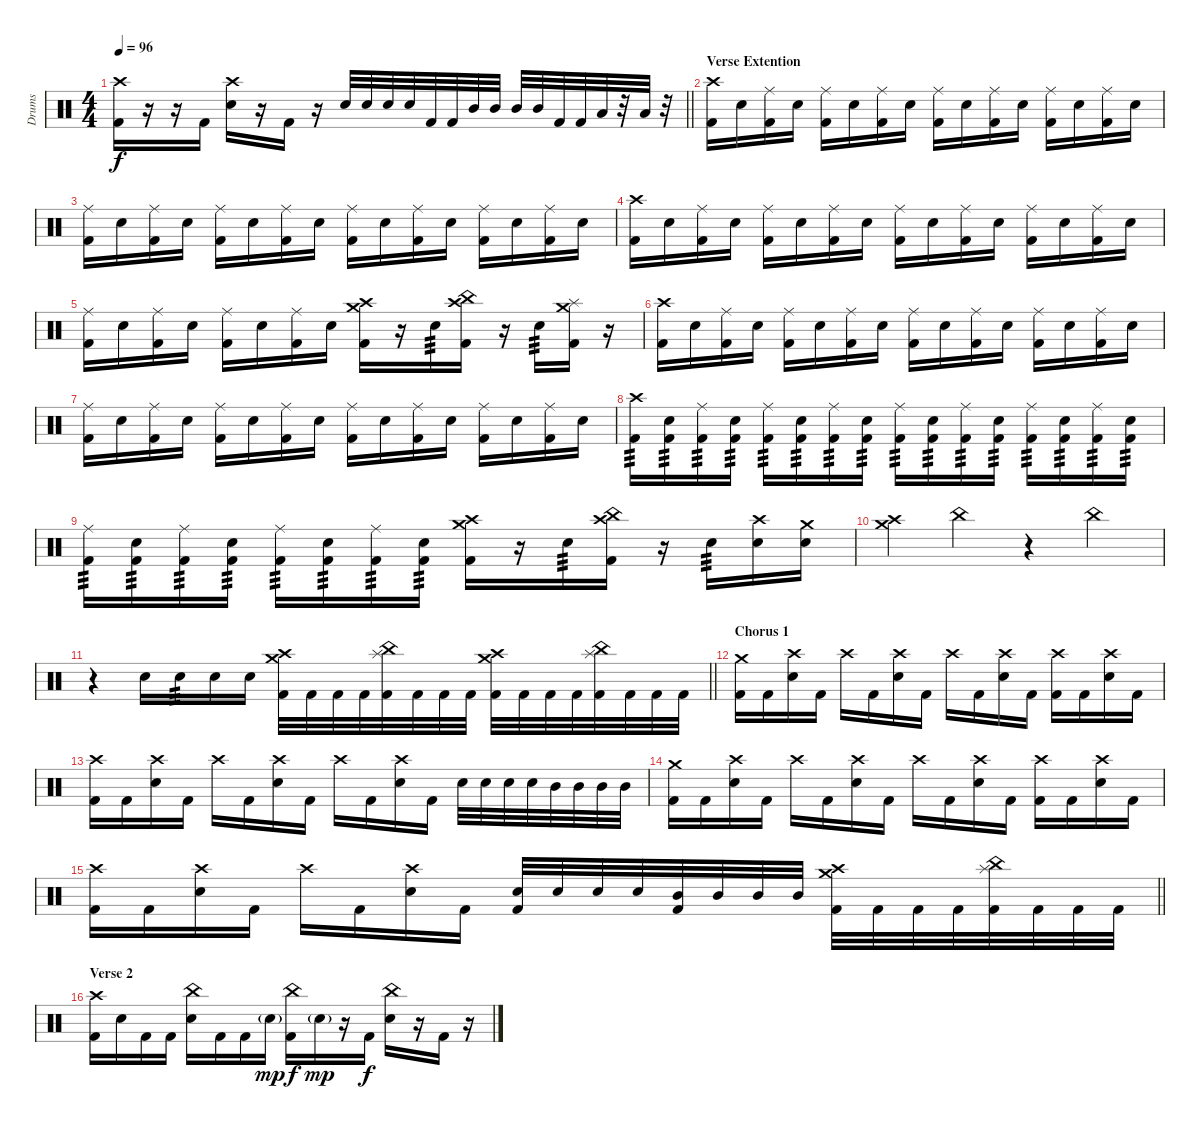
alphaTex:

\track ("Drums" "Drums") {instrument percussion}
\staff {score}
\articulation defaults
\ts (4 4)
\tempo 96
\clef neutral
\barLineRight lightlight
\ks c
("Crash high (hit)" "Kick (hit) 2").16{dy f} r.16 r.16 "Kick (hit) 2".16 ("Crash high (hit)" "Snare (hit) 2").16 r.16 "Kick (hit) 2".16 r.16 "Snare (hit) 2".32 "Snare (hit) 2".32 "Snare (hit) 2".32 "Snare (hit) 2".32 "Kick (hit) 2".32 "Kick (hit) 2".32 "Mid Tom (hit)".32 "Mid Tom (hit)".32 "Mid Tom (hit)".32 "Mid Tom (hit)".32 "Kick (hit) 2".32 "Kick (hit) 2".32 "Low Tom (hit)".32 r.32 "Low Tom (hit)".32 r.32 |
\section ("" "Verse Extention")
("Crash high (hit)" "Kick (hit) 2").16 "Snare (hit) 2".16 ("Ride (middle)" "Kick (hit) 2").16 "Snare (hit) 2".16 ("Ride (middle)" "Kick (hit) 2").16 "Snare (hit) 2".16 ("Ride (middle)" "Kick (hit) 2").16 "Snare (hit) 2".16 ("Ride (middle)" "Kick (hit) 2").16 "Snare (hit) 2".16 ("Ride (middle)" "Kick (hit) 2").16 "Snare (hit) 2".16 ("Ride (middle)" "Kick (hit) 2").16 "Snare (hit) 2".16 ("Ride (middle)" "Kick (hit) 2").16 "Snare (hit) 2".16 |
("Ride (middle)" "Kick (hit) 2").16 "Snare (hit) 2".16 ("Ride (middle)" "Kick (hit) 2").16 "Snare (hit) 2".16 ("Ride (middle)" "Kick (hit) 2").16 "Snare (hit) 2".16 ("Ride (middle)" "Kick (hit) 2").16 "Snare (hit) 2".16 ("Ride (middle)" "Kick (hit) 2").16 "Snare (hit) 2".16 ("Ride (middle)" "Kick (hit) 2").16 "Snare (hit) 2".16 ("Ride (middle)" "Kick (hit) 2").16 "Snare (hit) 2".16 ("Ride (middle)" "Kick (hit) 2").16 "Snare (hit) 2".16 |
("Crash high (hit)" "Kick (hit) 2").16 "Snare (hit) 2".16 ("Ride (middle)" "Kick (hit) 2").16 "Snare (hit) 2".16 ("Ride (middle)" "Kick (hit) 2").16 "Snare (hit) 2".16 ("Ride (middle)" "Kick (hit) 2").16 "Snare (hit) 2".16 ("Ride (middle)" "Kick (hit) 2").16 "Snare (hit) 2".16 ("Ride (middle)" "Kick (hit) 2").16 "Snare (hit) 2".16 ("Ride (middle)" "Kick (hit) 2").16 "Snare (hit) 2".16 ("Ride (middle)" "Kick (hit) 2").16 "Snare (hit) 2".16 |
("Ride (middle)" "Kick (hit) 2").16 "Snare (hit) 2".16 ("Ride (middle)" "Kick (hit) 2").16 "Snare (hit) 2".16 ("Ride (middle)" "Kick (hit) 2").16 "Snare (hit) 2".16 ("Ride (middle)" "Kick (hit) 2").16 "Snare (hit) 2".16 ("Crash medium (hit)" "Crash high (hit)" "Kick (hit) 2").16 r.16 "Snare (hit) 2".16{tp 3} ("China (hit)" "Crash high (hit)" "Kick (hit) 2").16 r.16 "Snare (hit) 2".16{tp 3} ("Crash medium (hit)" "Splash (hit)" "Kick (hit) 2").16 r.16 |
("Crash high (hit)" "Kick (hit) 2").16 "Snare (hit) 2".16 ("Ride (middle)" "Kick (hit) 2").16 "Snare (hit) 2".16 ("Ride (middle)" "Kick (hit) 2").16 "Snare (hit) 2".16 ("Ride (middle)" "Kick (hit) 2").16 "Snare (hit) 2".16 ("Ride (middle)" "Kick (hit) 2").16 "Snare (hit) 2".16 ("Ride (middle)" "Kick (hit) 2").16 "Snare (hit) 2".16 ("Ride (middle)" "Kick (hit) 2").16 "Snare (hit) 2".16 ("Ride (middle)" "Kick (hit) 2").16 "Snare (hit) 2".16 |
("Ride (middle)" "Kick (hit) 2").16 "Snare (hit) 2".16 ("Ride (middle)" "Kick (hit) 2").16 "Snare (hit) 2".16 ("Ride (middle)" "Kick (hit) 2").16 "Snare (hit) 2".16 ("Ride (middle)" "Kick (hit) 2").16 "Snare (hit) 2".16 ("Ride (middle)" "Kick (hit) 2").16 "Snare (hit) 2".16 ("Ride (middle)" "Kick (hit) 2").16 "Snare (hit) 2".16 ("Ride (middle)" "Kick (hit) 2").16 "Snare (hit) 2".16 ("Ride (middle)" "Kick (hit) 2").16 "Snare (hit) 2".16 |
("Crash high (hit)" "Kick (hit) 2").16{tp 3} ("Snare (hit) 2" "Kick (hit) 2").16{tp 3} ("Ride (middle)" "Kick (hit) 2").16{tp 3} ("Snare (hit) 2" "Kick (hit) 2").16{tp 3} ("Ride (middle)" "Kick (hit) 2").16{tp 3} ("Snare (hit) 2" "Kick (hit) 2").16{tp 3} ("Ride (middle)" "Kick (hit) 2").16{tp 3} ("Snare (hit) 2" "Kick (hit) 2").16{tp 3} ("Ride (middle)" "Kick (hit) 2").16{tp 3} ("Snare (hit) 2" "Kick (hit) 2").16{tp 3} ("Ride (middle)" "Kick (hit) 2").16{tp 3} ("Snare (hit) 2" "Kick (hit) 2").16{tp 3} ("Ride (middle)" "Kick (hit) 2").16{tp 3} ("Snare (hit) 2" "Kick (hit) 2").16{tp 3} ("Ride (middle)" "Kick (hit) 2").16{tp 3} ("Snare (hit) 2" "Kick (hit) 2").16{tp 3} |
("Ride (middle)" "Kick (hit) 2").16{tp 3} ("Snare (hit) 2" "Kick (hit) 2").16{tp 3} ("Ride (middle)" "Kick (hit) 2").16{tp 3} ("Snare (hit) 2" "Kick (hit) 2").16{tp 3} ("Ride (middle)" "Kick (hit) 2").16{tp 3} ("Snare (hit) 2" "Kick (hit) 2").16{tp 3} ("Ride (middle)" "Kick (hit) 2").16{tp 3} ("Snare (hit) 2" "Kick (hit) 2").16{tp 3} ("Crash medium (hit)" "Crash high (hit)" "Kick (hit) 2").16 r.16 "Snare (hit) 2".16{tp 3} ("China (hit)" "Crash high (hit)" "Kick (hit) 2").16 r.16 "Snare (hit) 2".16{tp 3} ("Crash high (hit)" "Snare (hit) 2").16 ("Crash medium (hit)" "Snare (hit) 2").16 |
("Crash high (hit)" "Crash medium (hit)").4 "China (hit)".4 r.4 "China (hit)".4 |
\barLineRight lightlight
r.4 "Snare (hit) 2".16 "Snare (hit) 2".16{tp 3} "Snare (hit) 2".16 "Snare (hit) 2".16 ("Crash high (hit)" "Crash medium (hit)" "Kick (hit) 2").32 "Kick (hit) 2".32 "Kick (hit) 2".32 "Kick (hit) 2".32 ("China (hit)" "Splash (hit)" "Kick (hit) 2").32 "Kick (hit) 2".32 "Kick (hit) 2".32 "Kick (hit) 2".32 ("Crash high (hit)" "Crash medium (hit)" "Kick (hit) 2").32 "Kick (hit) 2".32 "Kick (hit) 2".32 "Kick (hit) 2".32 ("China (hit)" "Splash (hit)" "Kick (hit) 2").32 "Kick (hit) 2".32 "Kick (hit) 2".32 "Kick (hit) 2".32 |
\section ("" "Chorus 1")
("Crash medium (hit)" "Kick (hit) 2").16 "Kick (hit) 2".16 ("Crash high (hit)" "Snare (hit) 2").16 "Kick (hit) 2".16 "Crash high (hit)".16 "Kick (hit) 2".16 ("Crash high (hit)" "Snare (hit) 2").16 "Kick (hit) 2".16 "Crash high (hit)".16 "Kick (hit) 2".16 ("Crash high (hit)" "Snare (hit) 2").16 "Kick (hit) 2".16 ("Crash high (hit)" "Kick (hit) 2").16 "Kick (hit) 2".16 ("Crash high (hit)" "Snare (hit) 2").16 "Kick (hit) 2".16 |
("Crash high (hit)" "Kick (hit) 2").16 "Kick (hit) 2".16 ("Crash high (hit)" "Snare (hit) 2").16 "Kick (hit) 2".16 "Crash high (hit)".16 "Kick (hit) 2".16 ("Crash high (hit)" "Snare (hit) 2").16 "Kick (hit) 2".16 "Crash high (hit)".16 "Kick (hit) 2".16 ("Crash high (hit)" "Snare (hit) 2").16 "Kick (hit) 2".16 "Snare (hit) 2".32 "Snare (hit) 2".32 "Snare (hit) 2".32 "Snare (hit) 2".32 "Mid Tom (hit)".32 "Mid Tom (hit)".32 "Mid Tom (hit)".32 "Mid Tom (hit)".32 |
("Crash medium (hit)" "Kick (hit) 2").16 "Kick (hit) 2".16 ("Crash high (hit)" "Snare (hit) 2").16 "Kick (hit) 2".16 "Crash high (hit)".16 "Kick (hit) 2".16 ("Crash high (hit)" "Snare (hit) 2").16 "Kick (hit) 2".16 "Crash high (hit)".16 "Kick (hit) 2".16 ("Crash high (hit)" "Snare (hit) 2").16 "Kick (hit) 2".16 ("Crash high (hit)" "Kick (hit) 2").16 "Kick (hit) 2".16 ("Crash high (hit)" "Snare (hit) 2").16 "Kick (hit) 2".16 |
\barLineRight lightlight
("Crash high (hit)" "Kick (hit) 2").16 "Kick (hit) 2".16 ("Crash high (hit)" "Snare (hit) 2").16 "Kick (hit) 2".16 "Crash high (hit)".16 "Kick (hit) 2".16 ("Crash high (hit)" "Snare (hit) 2").16 "Kick (hit) 2".16 ("Snare (hit) 2" "Kick (hit) 2").32 "Snare (hit) 2".32 "Snare (hit) 2".32 "Snare (hit) 2".32 ("Mid Tom (hit)" "Kick (hit) 2").32 "Mid Tom (hit)".32 "Mid Tom (hit)".32 "Mid Tom (hit)".32 ("Crash high (hit)" "Crash medium (hit)" "Kick (hit) 2").32 "Kick (hit) 2".32 "Kick (hit) 2".32 "Kick (hit) 2".32 ("China (hit)" "Splash (hit)" "Kick (hit) 2").32 "Kick (hit) 2".32 "Kick (hit) 2".32 "Kick (hit) 2".32 |
\section ("" "Verse 2")
("Crash high (hit)" "Kick (hit) 2").16 "Snare (hit) 2".16 "Kick (hit) 2".16 "Kick (hit) 2".16 ("China (hit)" "Snare (hit) 2").16 "Kick (hit) 2".16 "Kick (hit) 2".16 "Snare (hit) 2"{g}.16{dy mp} ("China (hit)" "Kick (hit) 2").16{dy f} "Snare (hit) 2"{g}.16{dy mp} r.16 "Kick (hit) 2".16{dy f} ("China (hit)" "Snare (hit) 2").16 r.16 "Kick (hit) 2".16 r.16
